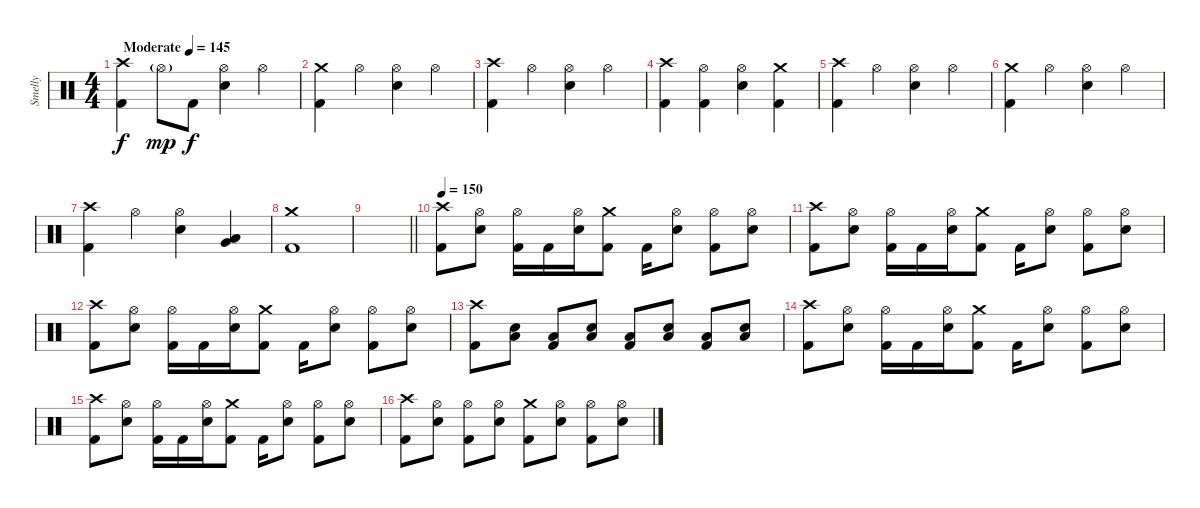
\track ("Smelly" "Smelly") {instrument percussion}
\staff {score}
\articulation defaults
\ts (4 4)
\tempo (145 "Moderate")
\clef neutral
\ks c
("Crash high (hit)" "Kick (hit) 2").4{dy f} "Hi-Hat (open)"{g}.8{dy mp} "Kick (hit) 2".8{dy f} ("Hi-Hat (open)" "Electric Snare (hit)").4 "Hi-Hat (open)".4 |
("Crash medium (hit)" "Kick (hit) 2").4 "Hi-Hat (open)".4 ("Hi-Hat (open)" "Electric Snare (hit)").4 "Hi-Hat (open)".4 |
("Crash high (hit)" "Kick (hit) 2").4 "Hi-Hat (open)".4 ("Hi-Hat (open)" "Electric Snare (hit)").4 "Hi-Hat (open)".4 |
("Crash high (hit)" "Kick (hit) 2").4 ("Hi-Hat (open)" "Kick (hit) 2").4 ("Hi-Hat (open)" "Electric Snare (hit)").4 ("Crash medium (hit)" "Kick (hit) 2").4 |
("Crash high (hit)" "Kick (hit) 2").4 "Hi-Hat (open)".4 ("Hi-Hat (open)" "Electric Snare (hit)").4 "Hi-Hat (open)".4 |
("Crash medium (hit)" "Kick (hit) 2").4 "Hi-Hat (open)".4 ("Hi-Hat (open)" "Electric Snare (hit)").4 "Hi-Hat (open)".4 |
("Crash high (hit)" "Kick (hit) 2").4 "Hi-Hat (open)".4 ("Hi-Hat (open)" "Electric Snare (hit)").4 ("Very Low Tom (hit)" "Low Floor Tom (hit)").4 |
("Crash medium (hit)" "Kick (hit) 2").1 |
\barLineRight lightlight
|
\section ("" "")
\tempo 150
("Crash high (hit)" "Kick (hit) 2").8 ("Hi-Hat (open)" "Electric Snare (hit)").8 ("Hi-Hat (open)" "Kick (hit) 2").16 "Kick (hit) 2".16 ("Hi-Hat (open)" "Electric Snare (hit)").16 ("Crash medium (hit)" "Kick (hit) 2").8 "Kick (hit) 2".16 ("Hi-Hat (open)" "Electric Snare (hit)").8 ("Hi-Hat (open)" "Kick (hit) 2").8 ("Hi-Hat (open)" "Electric Snare (hit)").8 |
("Crash high (hit)" "Kick (hit) 2").8 ("Hi-Hat (open)" "Electric Snare (hit)").8 ("Hi-Hat (open)" "Kick (hit) 2").16 "Kick (hit) 2".16 ("Hi-Hat (open)" "Electric Snare (hit)").16 ("Crash medium (hit)" "Kick (hit) 2").8 "Kick (hit) 2".16 ("Hi-Hat (open)" "Electric Snare (hit)").8 ("Hi-Hat (open)" "Kick (hit) 2").8 ("Hi-Hat (open)" "Electric Snare (hit)").8 |
("Crash high (hit)" "Kick (hit) 2").8 ("Hi-Hat (open)" "Electric Snare (hit)").8 ("Hi-Hat (open)" "Kick (hit) 2").16 "Kick (hit) 2".16 ("Hi-Hat (open)" "Electric Snare (hit)").16 ("Crash medium (hit)" "Kick (hit) 2").8 "Kick (hit) 2".16 ("Hi-Hat (open)" "Electric Snare (hit)").8 ("Hi-Hat (open)" "Kick (hit) 2").8 ("Hi-Hat (open)" "Electric Snare (hit)").8 |
("Crash high (hit)" "Kick (hit) 2").8 ("Electric Snare (hit)" "Low Floor Tom (hit)").8 ("Low Floor Tom (hit)" "Kick (hit) 2").8 ("Electric Snare (hit)" "Low Floor Tom (hit)").8 ("Low Floor Tom (hit)" "Kick (hit) 2").8 ("Electric Snare (hit)" "Low Floor Tom (hit)").8 ("Low Floor Tom (hit)" "Kick (hit) 2").8 ("Electric Snare (hit)" "Low Floor Tom (hit)").8 |
("Crash high (hit)" "Kick (hit) 2").8 ("Hi-Hat (open)" "Electric Snare (hit)").8 ("Hi-Hat (open)" "Kick (hit) 2").16 "Kick (hit) 2".16 ("Hi-Hat (open)" "Electric Snare (hit)").16 ("Crash medium (hit)" "Kick (hit) 2").8 "Kick (hit) 2".16 ("Hi-Hat (open)" "Electric Snare (hit)").8 ("Hi-Hat (open)" "Kick (hit) 2").8 ("Hi-Hat (open)" "Electric Snare (hit)").8 |
("Crash high (hit)" "Kick (hit) 2").8 ("Hi-Hat (open)" "Electric Snare (hit)").8 ("Hi-Hat (open)" "Kick (hit) 2").16 "Kick (hit) 2".16 ("Hi-Hat (open)" "Electric Snare (hit)").16 ("Crash medium (hit)" "Kick (hit) 2").8 "Kick (hit) 2".16 ("Hi-Hat (open)" "Electric Snare (hit)").8 ("Hi-Hat (open)" "Kick (hit) 2").8 ("Hi-Hat (open)" "Electric Snare (hit)").8 |
("Crash high (hit)" "Kick (hit) 2").8 ("Hi-Hat (open)" "Electric Snare (hit)").8 ("Hi-Hat (open)" "Kick (hit) 2").8 ("Hi-Hat (open)" "Electric Snare (hit)").8 ("Crash medium (hit)" "Kick (hit) 2").8 ("Hi-Hat (open)" "Electric Snare (hit)").8 ("Hi-Hat (open)" "Kick (hit) 2").8 ("Hi-Hat (open)" "Electric Snare (hit)").8
